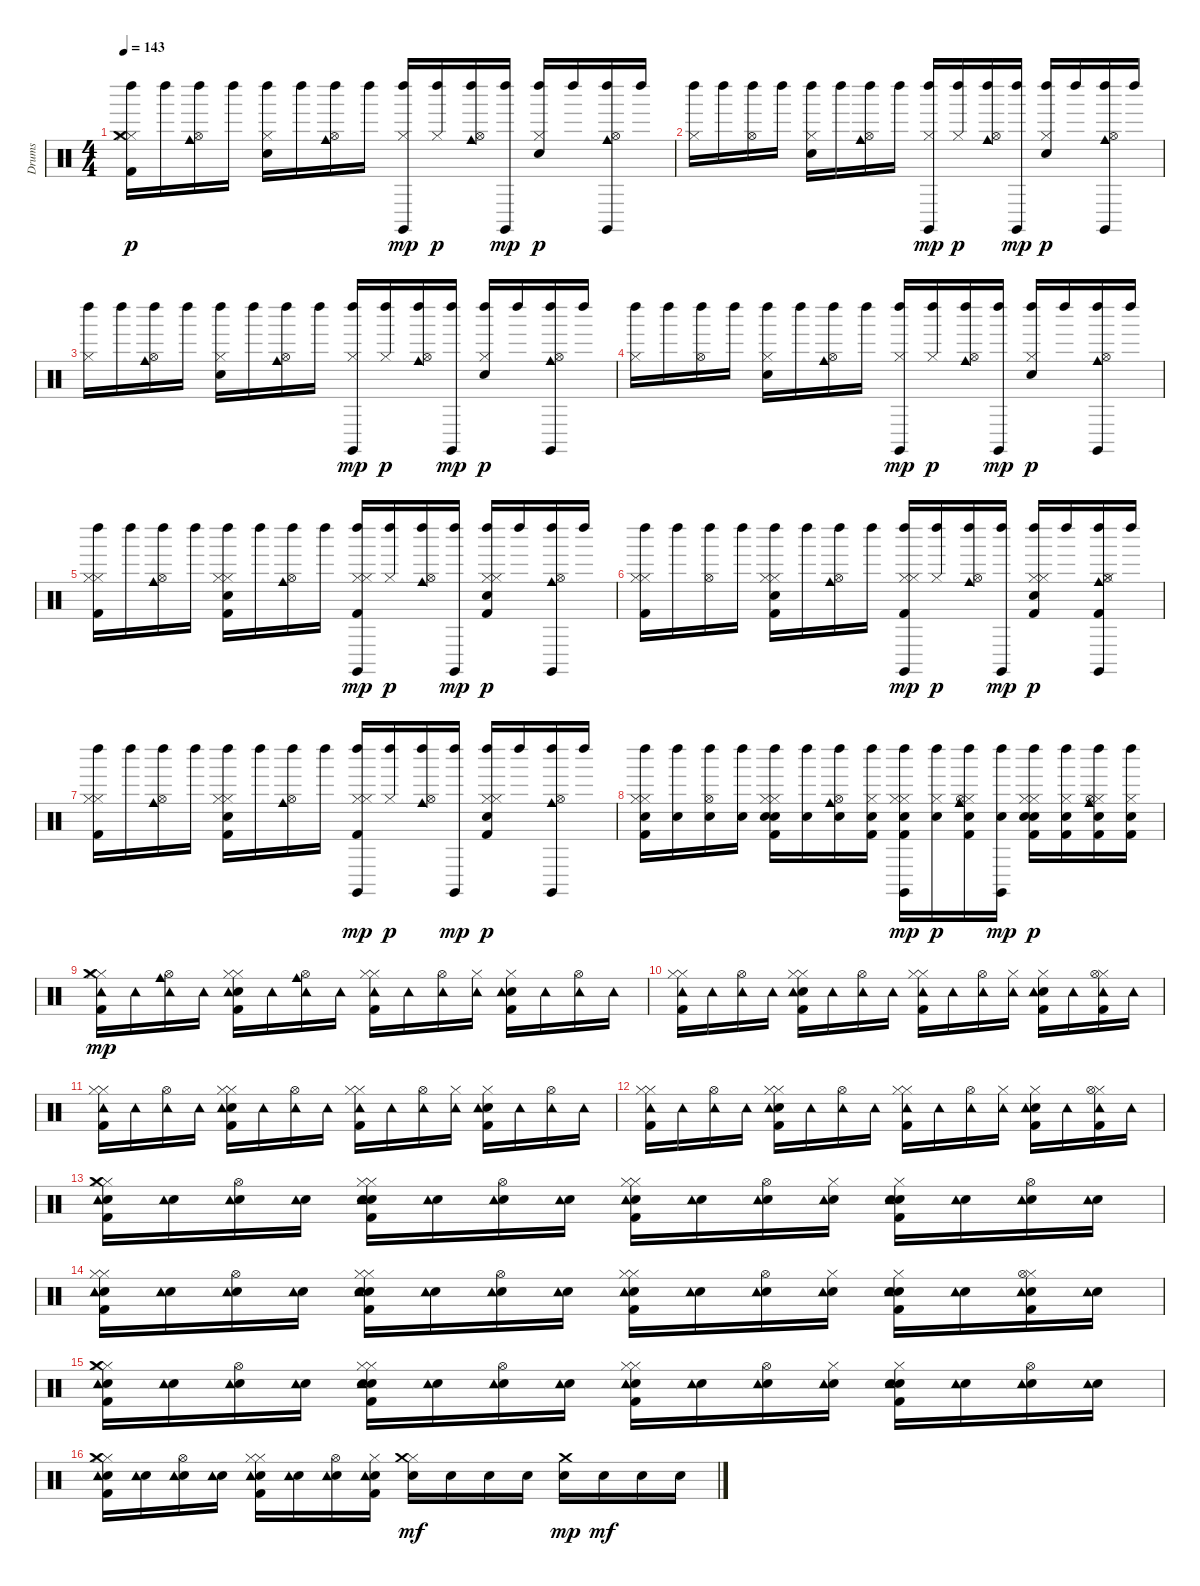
\track ("Drums" "Drums") {instrument percussion}
\staff {score}
\articulation defaults
\ts (4 4)
\tempo 143
\clef neutral
\ks c
("Hi-Hat (closed)" "Kick (hit) 2" "Hi-Hat (closed)" "Crash medium (hit)" "Left Maraca (hit)").16{dy p} "Left Maraca (hit)".16 ("Hi-Hat (open)" "Cowbell medium (hit)" "Left Maraca (hit)").16 "Left Maraca (hit)".16 ("Hand Clap (hit)" "Hi-Hat (closed)" "Left Maraca (hit)").16 "Left Maraca (hit)".16 ("Hi-Hat (open)" "Cowbell medium (hit)" "Left Maraca (hit)").16 "Left Maraca (hit)".16 ("Hi-Hat (closed)" "Left Maraca (hit)" "Claves (hit)").16{dy mp} ("Hi-Hat (closed)" "Left Maraca (hit)").16{dy p} ("Hi-Hat (open)" "Cowbell medium (hit)" "Left Maraca (hit)").16 ("Left Maraca (hit)" "Claves (hit)").16{dy mp} ("Hand Clap (hit)" "Hi-Hat (closed)" "Left Maraca (hit)").16{dy p} "Left Maraca (hit)".16 ("Hi-Hat (open)" "Cowbell medium (hit)" "Left Maraca (hit)" "Claves (hit)").16 "Left Maraca (hit)".16 |
("Hi-Hat (closed)" "Left Maraca (hit)").16 "Left Maraca (hit)".16 ("Hi-Hat (open)" "Left Maraca (hit)").16 "Left Maraca (hit)".16 ("Hand Clap (hit)" "Hi-Hat (closed)" "Left Maraca (hit)").16 "Left Maraca (hit)".16 ("Hi-Hat (open)" "Cowbell medium (hit)" "Left Maraca (hit)").16 "Left Maraca (hit)".16 ("Hi-Hat (closed)" "Left Maraca (hit)" "Claves (hit)").16{dy mp} ("Hi-Hat (closed)" "Left Maraca (hit)").16{dy p} ("Hi-Hat (open)" "Cowbell medium (hit)" "Left Maraca (hit)").16 ("Left Maraca (hit)" "Claves (hit)").16{dy mp} ("Hand Clap (hit)" "Hi-Hat (closed)" "Left Maraca (hit)").16{dy p} "Left Maraca (hit)".16 ("Hi-Hat (open)" "Cowbell medium (hit)" "Left Maraca (hit)" "Claves (hit)").16 "Left Maraca (hit)".16 |
("Hi-Hat (closed)" "Left Maraca (hit)").16 "Left Maraca (hit)".16 ("Hi-Hat (open)" "Cowbell medium (hit)" "Left Maraca (hit)").16 "Left Maraca (hit)".16 ("Hand Clap (hit)" "Hi-Hat (closed)" "Left Maraca (hit)").16 "Left Maraca (hit)".16 ("Hi-Hat (open)" "Cowbell medium (hit)" "Left Maraca (hit)").16 "Left Maraca (hit)".16 ("Hi-Hat (closed)" "Left Maraca (hit)" "Claves (hit)").16{dy mp} ("Hi-Hat (closed)" "Left Maraca (hit)").16{dy p} ("Hi-Hat (open)" "Cowbell medium (hit)" "Left Maraca (hit)").16 ("Left Maraca (hit)" "Claves (hit)").16{dy mp} ("Hand Clap (hit)" "Hi-Hat (closed)" "Left Maraca (hit)").16{dy p} "Left Maraca (hit)".16 ("Hi-Hat (open)" "Cowbell medium (hit)" "Left Maraca (hit)" "Claves (hit)").16 "Left Maraca (hit)".16 |
("Hi-Hat (closed)" "Left Maraca (hit)").16 "Left Maraca (hit)".16 ("Hi-Hat (open)" "Left Maraca (hit)").16 "Left Maraca (hit)".16 ("Hand Clap (hit)" "Hi-Hat (closed)" "Left Maraca (hit)").16 "Left Maraca (hit)".16 ("Hi-Hat (open)" "Cowbell medium (hit)" "Left Maraca (hit)").16 "Left Maraca (hit)".16 ("Hi-Hat (closed)" "Left Maraca (hit)" "Claves (hit)").16{dy mp} ("Hi-Hat (closed)" "Left Maraca (hit)").16{dy p} ("Hi-Hat (open)" "Cowbell medium (hit)" "Left Maraca (hit)").16 ("Left Maraca (hit)" "Claves (hit)").16{dy mp} ("Hand Clap (hit)" "Hi-Hat (closed)" "Left Maraca (hit)").16{dy p} "Left Maraca (hit)".16 ("Hi-Hat (open)" "Cowbell medium (hit)" "Left Maraca (hit)" "Claves (hit)").16 "Left Maraca (hit)".16 |
("Hi-Hat (closed)" "Kick (hit) 2" "Hi-Hat (closed)" "Left Maraca (hit)").16 "Left Maraca (hit)".16 ("Hi-Hat (open)" "Cowbell medium (hit)" "Left Maraca (hit)").16 "Left Maraca (hit)".16 ("Hi-Hat (closed)" "Kick (hit) 2" "Hand Clap (hit)" "Hi-Hat (closed)" "Left Maraca (hit)").16 "Left Maraca (hit)".16 ("Hi-Hat (open)" "Cowbell medium (hit)" "Left Maraca (hit)").16 "Left Maraca (hit)".16 ("Hi-Hat (closed)" "Kick (hit) 2" "Hi-Hat (closed)" "Left Maraca (hit)" "Claves (hit)").16{dy mp} ("Hi-Hat (closed)" "Left Maraca (hit)").16{dy p} ("Hi-Hat (open)" "Cowbell medium (hit)" "Left Maraca (hit)").16 ("Left Maraca (hit)" "Claves (hit)").16{dy mp} ("Hi-Hat (closed)" "Kick (hit) 2" "Hand Clap (hit)" "Hi-Hat (closed)" "Left Maraca (hit)").16{dy p} "Left Maraca (hit)".16 ("Hi-Hat (open)" "Cowbell medium (hit)" "Left Maraca (hit)" "Claves (hit)").16 "Left Maraca (hit)".16 |
("Hi-Hat (closed)" "Kick (hit) 2" "Hi-Hat (closed)" "Left Maraca (hit)").16 "Left Maraca (hit)".16 ("Hi-Hat (open)" "Left Maraca (hit)").16 "Left Maraca (hit)".16 ("Hi-Hat (closed)" "Kick (hit) 2" "Hand Clap (hit)" "Hi-Hat (closed)" "Left Maraca (hit)").16 "Left Maraca (hit)".16 ("Hi-Hat (open)" "Cowbell medium (hit)" "Left Maraca (hit)").16 "Left Maraca (hit)".16 ("Hi-Hat (closed)" "Kick (hit) 2" "Hi-Hat (closed)" "Left Maraca (hit)" "Claves (hit)").16{dy mp} ("Hi-Hat (closed)" "Left Maraca (hit)").16{dy p} ("Hi-Hat (open)" "Cowbell medium (hit)" "Left Maraca (hit)").16 ("Left Maraca (hit)" "Claves (hit)").16{dy mp} ("Hi-Hat (closed)" "Kick (hit) 2" "Hand Clap (hit)" "Hi-Hat (closed)" "Left Maraca (hit)").16{dy p} "Left Maraca (hit)".16 ("Hi-Hat (closed)" "Kick (hit) 2" "Hi-Hat (open)" "Cowbell medium (hit)" "Left Maraca (hit)" "Claves (hit)").16 "Left Maraca (hit)".16 |
("Hi-Hat (closed)" "Kick (hit) 2" "Hi-Hat (closed)" "Left Maraca (hit)").16 "Left Maraca (hit)".16 ("Hi-Hat (open)" "Cowbell medium (hit)" "Left Maraca (hit)").16 "Left Maraca (hit)".16 ("Hi-Hat (closed)" "Kick (hit) 2" "Hand Clap (hit)" "Hi-Hat (closed)" "Left Maraca (hit)").16 "Left Maraca (hit)".16 ("Hi-Hat (open)" "Cowbell medium (hit)" "Left Maraca (hit)").16 "Left Maraca (hit)".16 ("Hi-Hat (closed)" "Kick (hit) 2" "Hi-Hat (closed)" "Left Maraca (hit)" "Claves (hit)").16{dy mp} ("Hi-Hat (closed)" "Left Maraca (hit)").16{dy p} ("Hi-Hat (open)" "Cowbell medium (hit)" "Left Maraca (hit)").16 ("Left Maraca (hit)" "Claves (hit)").16{dy mp} ("Hi-Hat (closed)" "Kick (hit) 2" "Hand Clap (hit)" "Hi-Hat (closed)" "Left Maraca (hit)").16{dy p} "Left Maraca (hit)".16 ("Hi-Hat (open)" "Cowbell medium (hit)" "Left Maraca (hit)" "Claves (hit)").16 "Left Maraca (hit)".16 |
("Hi-Hat (closed)" "Kick (hit) 2" "Snare (hit) 2" "Hi-Hat (closed)" "Left Maraca (hit)").16 ("Snare (hit) 2" "Left Maraca (hit)").16 ("Snare (hit) 2" "Hi-Hat (open)" "Left Maraca (hit)").16 ("Snare (hit) 2" "Left Maraca (hit)").16 ("Hi-Hat (closed)" "Kick (hit) 2" "Snare (hit) 2" "Hand Clap (hit)" "Hi-Hat (closed)" "Left Maraca (hit)").16 ("Snare (hit) 2" "Left Maraca (hit)").16 ("Snare (hit) 2" "Hi-Hat (open)" "Cowbell medium (hit)" "Left Maraca (hit)").16 ("Hi-Hat (closed)" "Kick (hit) 2" "Snare (hit) 2" "Left Maraca (hit)").16 ("Hi-Hat (closed)" "Kick (hit) 2" "Snare (hit) 2" "Hi-Hat (closed)" "Left Maraca (hit)" "Claves (hit)").16{dy mp} ("Snare (hit) 2" "Hi-Hat (closed)" "Left Maraca (hit)").16{dy p} ("Hi-Hat (closed)" "Kick (hit) 2" "Snare (hit) 2" "Hi-Hat (open)" "Cowbell medium (hit)" "Left Maraca (hit)").16 ("Snare (hit) 2" "Left Maraca (hit)" "Claves (hit)").16{dy mp} ("Hi-Hat (closed)" "Kick (hit) 2" "Snare (hit) 2" "Hand Clap (hit)" "Hi-Hat (closed)" "Left Maraca (hit)").16{dy p} ("Hi-Hat (closed)" "Kick (hit) 2" "Snare (hit) 2" "Left Maraca (hit)").16 ("Hi-Hat (closed)" "Kick (hit) 2" "Snare (hit) 2" "Hi-Hat (open)" "Cowbell medium (hit)" "Left Maraca (hit)").16 ("Hi-Hat (closed)" "Kick (hit) 2" "Snare (hit) 2" "Left Maraca (hit)").16 |
("Hi-Hat (closed)" "Kick (hit) 2" "Hi-Hat (closed)" "Tambourine (hit)" "Crash medium (hit)").16{dy mp} "Tambourine (hit)".16 ("Hi-Hat (open)" "Tambourine (hit)" "Cowbell medium (hit)").16 "Tambourine (hit)".16 ("Hi-Hat (closed)" "Kick (hit) 2" "Hand Clap (hit)" "Hi-Hat (closed)" "Tambourine (hit)").16 "Tambourine (hit)".16 ("Hi-Hat (open)" "Tambourine (hit)" "Cowbell medium (hit)").16 "Tambourine (hit)".16 ("Hi-Hat (closed)" "Kick (hit) 2" "Hi-Hat (closed)" "Tambourine (hit)").16 "Tambourine (hit)".16 ("Hi-Hat (open)" "Tambourine (hit)").16 ("Hi-Hat (closed)" "Tambourine (hit)").16 ("Hi-Hat (closed)" "Kick (hit) 2" "Hand Clap (hit)" "Tambourine (hit)").16 "Tambourine (hit)".16 ("Hi-Hat (open)" "Tambourine (hit)").16 "Tambourine (hit)".16 |
("Hi-Hat (closed)" "Kick (hit) 2" "Hi-Hat (closed)" "Tambourine (hit)").16 "Tambourine (hit)".16 ("Hi-Hat (open)" "Tambourine (hit)").16 "Tambourine (hit)".16 ("Hi-Hat (closed)" "Kick (hit) 2" "Hand Clap (hit)" "Hi-Hat (closed)" "Tambourine (hit)").16 "Tambourine (hit)".16 ("Hi-Hat (open)" "Tambourine (hit)").16 "Tambourine (hit)".16 ("Hi-Hat (closed)" "Kick (hit) 2" "Hi-Hat (closed)" "Tambourine (hit)").16 "Tambourine (hit)".16 ("Hi-Hat (open)" "Tambourine (hit)").16 ("Hi-Hat (closed)" "Tambourine (hit)").16 ("Hi-Hat (closed)" "Kick (hit) 2" "Hand Clap (hit)" "Tambourine (hit)").16 "Tambourine (hit)".16 ("Hi-Hat (closed)" "Kick (hit) 2" "Hi-Hat (open)" "Tambourine (hit)").16 "Tambourine (hit)".16 |
("Hi-Hat (closed)" "Kick (hit) 2" "Hi-Hat (closed)" "Tambourine (hit)").16 "Tambourine (hit)".16 ("Hi-Hat (open)" "Tambourine (hit)").16 "Tambourine (hit)".16 ("Hi-Hat (closed)" "Kick (hit) 2" "Hand Clap (hit)" "Hi-Hat (closed)" "Tambourine (hit)").16 "Tambourine (hit)".16 ("Hi-Hat (open)" "Tambourine (hit)").16 "Tambourine (hit)".16 ("Hi-Hat (closed)" "Kick (hit) 2" "Hi-Hat (closed)" "Tambourine (hit)").16 "Tambourine (hit)".16 ("Hi-Hat (open)" "Tambourine (hit)").16 ("Hi-Hat (closed)" "Tambourine (hit)").16 ("Hi-Hat (closed)" "Kick (hit) 2" "Hand Clap (hit)" "Tambourine (hit)").16 "Tambourine (hit)".16 ("Hi-Hat (open)" "Tambourine (hit)").16 "Tambourine (hit)".16 |
("Hi-Hat (closed)" "Kick (hit) 2" "Hi-Hat (closed)" "Tambourine (hit)").16 "Tambourine (hit)".16 ("Hi-Hat (open)" "Tambourine (hit)").16 "Tambourine (hit)".16 ("Hi-Hat (closed)" "Kick (hit) 2" "Hand Clap (hit)" "Hi-Hat (closed)" "Tambourine (hit)").16 "Tambourine (hit)".16 ("Hi-Hat (open)" "Tambourine (hit)").16 "Tambourine (hit)".16 ("Hi-Hat (closed)" "Kick (hit) 2" "Hi-Hat (closed)" "Tambourine (hit)").16 "Tambourine (hit)".16 ("Hi-Hat (open)" "Tambourine (hit)").16 ("Hi-Hat (closed)" "Tambourine (hit)").16 ("Hi-Hat (closed)" "Kick (hit) 2" "Hand Clap (hit)" "Tambourine (hit)").16 "Tambourine (hit)".16 ("Hi-Hat (closed)" "Kick (hit) 2" "Hi-Hat (open)" "Tambourine (hit)").16 "Tambourine (hit)".16 |
("Hi-Hat (closed)" "Kick (hit) 2" "Snare (hit) 2" "Hi-Hat (closed)" "Tambourine (hit)" "Crash medium (hit)").16 ("Snare (hit) 2" "Tambourine (hit)").16 ("Snare (hit) 2" "Hi-Hat (open)" "Tambourine (hit)").16 ("Snare (hit) 2" "Tambourine (hit)").16 ("Hi-Hat (closed)" "Kick (hit) 2" "Snare (hit) 2" "Hand Clap (hit)" "Hi-Hat (closed)" "Tambourine (hit)").16 ("Snare (hit) 2" "Tambourine (hit)").16 ("Snare (hit) 2" "Hi-Hat (open)" "Tambourine (hit)").16 ("Snare (hit) 2" "Tambourine (hit)").16 ("Hi-Hat (closed)" "Kick (hit) 2" "Snare (hit) 2" "Hi-Hat (closed)" "Tambourine (hit)").16 ("Snare (hit) 2" "Tambourine (hit)").16 ("Snare (hit) 2" "Hi-Hat (open)" "Tambourine (hit)").16 ("Snare (hit) 2" "Hi-Hat (closed)" "Tambourine (hit)").16 ("Hi-Hat (closed)" "Kick (hit) 2" "Snare (hit) 2" "Hand Clap (hit)" "Tambourine (hit)").16 ("Snare (hit) 2" "Tambourine (hit)").16 ("Snare (hit) 2" "Hi-Hat (open)" "Tambourine (hit)").16 ("Snare (hit) 2" "Tambourine (hit)").16 |
("Hi-Hat (closed)" "Kick (hit) 2" "Snare (hit) 2" "Hi-Hat (closed)" "Tambourine (hit)").16 ("Snare (hit) 2" "Tambourine (hit)").16 ("Snare (hit) 2" "Hi-Hat (open)" "Tambourine (hit)").16 ("Snare (hit) 2" "Tambourine (hit)").16 ("Hi-Hat (closed)" "Kick (hit) 2" "Snare (hit) 2" "Hand Clap (hit)" "Hi-Hat (closed)" "Tambourine (hit)").16 ("Snare (hit) 2" "Tambourine (hit)").16 ("Snare (hit) 2" "Hi-Hat (open)" "Tambourine (hit)").16 ("Snare (hit) 2" "Tambourine (hit)").16 ("Hi-Hat (closed)" "Kick (hit) 2" "Snare (hit) 2" "Hi-Hat (closed)" "Tambourine (hit)").16 ("Snare (hit) 2" "Tambourine (hit)").16 ("Snare (hit) 2" "Hi-Hat (open)" "Tambourine (hit)").16 ("Snare (hit) 2" "Hi-Hat (closed)" "Tambourine (hit)").16 ("Hi-Hat (closed)" "Kick (hit) 2" "Snare (hit) 2" "Hand Clap (hit)" "Tambourine (hit)").16 ("Snare (hit) 2" "Tambourine (hit)").16 ("Hi-Hat (closed)" "Kick (hit) 2" "Snare (hit) 2" "Hi-Hat (open)" "Tambourine (hit)").16 ("Snare (hit) 2" "Tambourine (hit)").16 |
("Hi-Hat (closed)" "Kick (hit) 2" "Snare (hit) 2" "Hi-Hat (closed)" "Tambourine (hit)" "Crash medium (hit)").16 ("Snare (hit) 2" "Tambourine (hit)").16 ("Snare (hit) 2" "Hi-Hat (open)" "Tambourine (hit)").16 ("Snare (hit) 2" "Tambourine (hit)").16 ("Hi-Hat (closed)" "Kick (hit) 2" "Snare (hit) 2" "Hand Clap (hit)" "Hi-Hat (closed)" "Tambourine (hit)").16 ("Snare (hit) 2" "Tambourine (hit)").16 ("Snare (hit) 2" "Hi-Hat (open)" "Tambourine (hit)").16 ("Snare (hit) 2" "Tambourine (hit)").16 ("Hi-Hat (closed)" "Kick (hit) 2" "Snare (hit) 2" "Hi-Hat (closed)" "Tambourine (hit)").16 ("Snare (hit) 2" "Tambourine (hit)").16 ("Snare (hit) 2" "Hi-Hat (open)" "Tambourine (hit)").16 ("Snare (hit) 2" "Hi-Hat (closed)" "Tambourine (hit)").16 ("Hi-Hat (closed)" "Kick (hit) 2" "Snare (hit) 2" "Hand Clap (hit)" "Tambourine (hit)").16 ("Snare (hit) 2" "Tambourine (hit)").16 ("Snare (hit) 2" "Hi-Hat (open)" "Tambourine (hit)").16 ("Snare (hit) 2" "Tambourine (hit)").16 |
("Hi-Hat (closed)" "Kick (hit) 2" "Snare (hit) 2" "Hi-Hat (closed)" "Tambourine (hit)" "Crash medium (hit)").16 ("Snare (hit) 2" "Tambourine (hit)").16 ("Snare (hit) 2" "Hi-Hat (open)" "Tambourine (hit)").16 ("Snare (hit) 2" "Tambourine (hit)").16 ("Hi-Hat (closed)" "Kick (hit) 2" "Snare (hit) 2" "Hi-Hat (closed)" "Tambourine (hit)").16 ("Snare (hit) 2" "Tambourine (hit)").16 ("Snare (hit) 2" "Hi-Hat (open)" "Tambourine (hit)").16 ("Hi-Hat (closed)" "Kick (hit) 2" "Snare (hit) 2" "Tambourine (hit)").16 ("Snare (hit) 2" "Hi-Hat (closed)" "Crash medium (hit)").16{dy mf} "Snare (hit) 2".16 "Snare (hit) 2".16 "Snare (hit) 2".16 ("Snare (hit) 2" "Crash medium (hit)").16{dy mp} "Snare (hit) 2".16{dy mf} "Snare (hit) 2".16 "Snare (hit) 2".16
